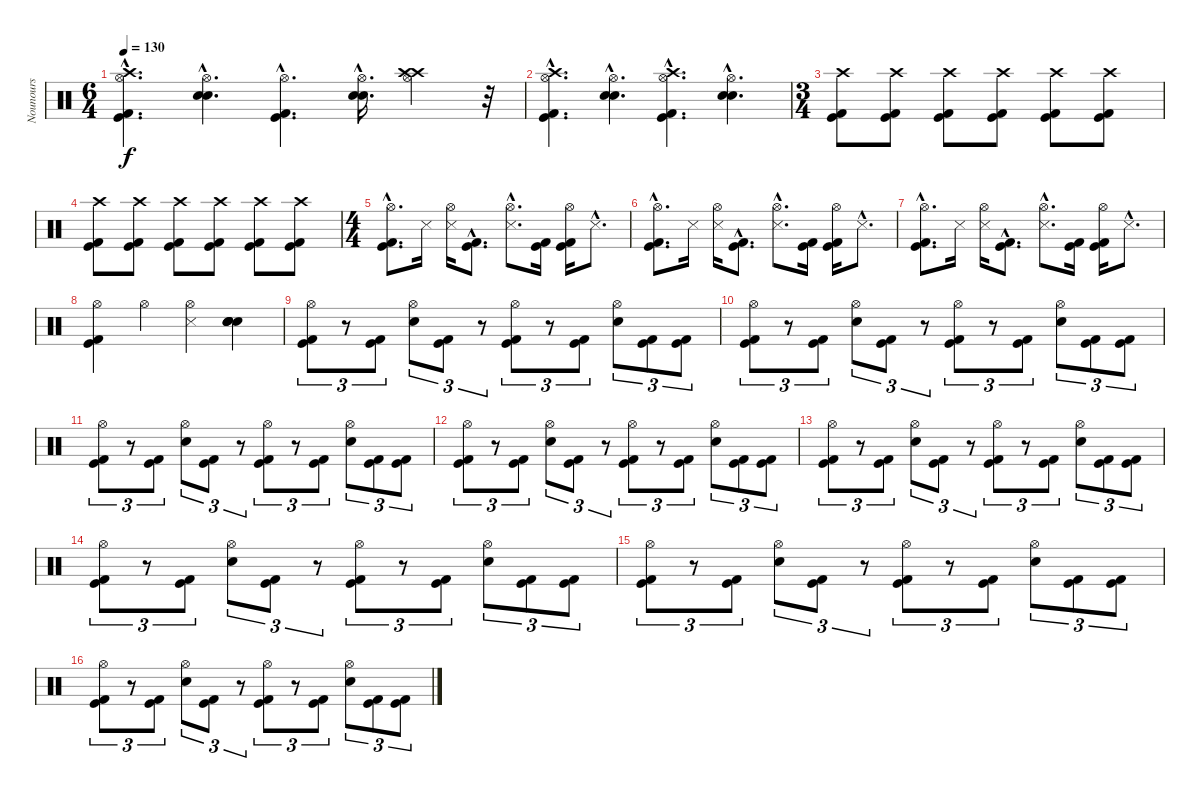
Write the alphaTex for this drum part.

\track ("Nounours" "Nounours") {instrument percussion}
\staff {score}
\articulation defaults
\ts (6 4)
\tempo 130
\clef neutral
\ks c
("Hi-Hat (open)"{hac} "Crash high (hit)"{hac} "Kick (hit) 2"{hac} "Kick (hit)"{hac}).4{d dy f} ("Hi-Hat (open)"{hac} "Snare (hit) 2"{hac} "Electric Snare (hit)"{hac}).4{d} ("Hi-Hat (open)"{hac} "Kick (hit)"{hac} "Kick (hit) 2"{hac}).4{d} ("Hi-Hat (open)"{hac} "Snare (hit) 2"{hac} "Electric Snare (hit)"{hac}).16{d} ("Hi-Hat (open)" "Crash high (hit)" "Crash high (hit)").4 r.32 |
("Hi-Hat (open)"{hac} "Crash high (hit)"{hac} "Kick (hit) 2"{hac} "Kick (hit)"{hac}).4{d} ("Hi-Hat (open)"{hac} "Snare (hit) 2"{hac} "Electric Snare (hit)"{hac}).4{d} ("Hi-Hat (open)"{hac} "Crash high (hit)"{hac} "Kick (hit)"{hac} "Kick (hit) 2"{hac}).4{d} ("Hi-Hat (open)"{hac} "Snare (hit) 2"{hac} "Electric Snare (hit)"{hac}).4{d} |
\ts (3 4)
("Crash high (hit)" "Kick (hit) 2" "Kick (hit)").8 ("Crash high (hit)" "Kick (hit)" "Kick (hit) 2").8 ("Crash high (hit)" "Kick (hit)" "Kick (hit) 2").8 ("Crash high (hit)" "Kick (hit)" "Kick (hit) 2").8 ("Crash high (hit)" "Kick (hit) 2" "Kick (hit)").8 ("Crash high (hit)" "Kick (hit) 2" "Kick (hit)").8 |
("Crash high (hit)" "Kick (hit) 2" "Kick (hit)").8 ("Crash high (hit)" "Kick (hit)" "Kick (hit) 2").8 ("Crash high (hit)" "Kick (hit)" "Kick (hit) 2").8 ("Crash high (hit)" "Kick (hit)" "Kick (hit) 2").8 ("Crash high (hit)" "Kick (hit) 2" "Kick (hit)").8 ("Crash high (hit)" "Kick (hit) 2" "Kick (hit)").8 |
\ts (4 4)
("Hi-Hat (open)"{hac} "Kick (hit)"{hac} "Kick (hit) 2"{hac}).8{d} "Snare (side stick) 3".16 ("Hi-Hat (open)" "Snare (side stick) 3").16 ("Kick (hit) 2"{hac} "Kick (hit)"{hac}).8{d} ("Hi-Hat (open)"{hac} "Snare (side stick) 3"{hac}).8{d} ("Kick (hit)" "Kick (hit) 2").16 ("Hi-Hat (open)" "Kick (hit)" "Kick (hit) 2").16 "Snare (side stick) 3"{hac}.8{d} |
("Hi-Hat (open)"{hac} "Kick (hit)"{hac} "Kick (hit) 2"{hac}).8{d} "Snare (side stick) 3".16 ("Hi-Hat (open)" "Snare (side stick) 3").16 ("Kick (hit) 2"{hac} "Kick (hit)"{hac}).8{d} ("Hi-Hat (open)"{hac} "Snare (side stick) 3"{hac}).8{d} ("Kick (hit)" "Kick (hit) 2").16 ("Hi-Hat (open)" "Kick (hit)" "Kick (hit) 2").16 "Snare (side stick) 3"{hac}.8{d} |
("Hi-Hat (open)"{hac} "Kick (hit)"{hac} "Kick (hit) 2"{hac}).8{d} "Snare (side stick) 3".16 ("Hi-Hat (open)" "Snare (side stick) 3").16 ("Kick (hit) 2"{hac} "Kick (hit)"{hac}).8{d} ("Hi-Hat (open)"{hac} "Snare (side stick) 3"{hac}).8{d} ("Kick (hit)" "Kick (hit) 2").16 ("Hi-Hat (open)" "Kick (hit)" "Kick (hit) 2").16 "Snare (side stick) 3"{hac}.8{d} |
("Hi-Hat (open)" "Kick (hit)" "Kick (hit) 2").4 "Hi-Hat (open)".4 ("Hi-Hat (open)" "Snare (side stick) 3").4 ("Snare (hit) 2" "Snare (hit) 2" "Electric Snare (hit)" "Electric Snare (hit)").4 |
("Hi-Hat (open)" "Kick (hit) 2" "Kick (hit)").8{tu (3 2)} r.8{tu (3 2)} ("Kick (hit) 2" "Kick (hit)").8{tu (3 2)} ("Hi-Hat (open)" "Snare (hit) 2").8{tu (3 2)} ("Kick (hit) 2" "Kick (hit)").8{tu (3 2)} r.8{tu (3 2)} ("Hi-Hat (open)" "Kick (hit)" "Kick (hit) 2").8{tu (3 2)} r.8{tu (3 2)} ("Kick (hit)" "Kick (hit) 2").8{tu (3 2)} ("Hi-Hat (open)" "Snare (hit) 2").8{tu (3 2)} ("Kick (hit) 2" "Kick (hit)").8{tu (3 2)} ("Kick (hit)" "Kick (hit) 2").8{tu (3 2)} |
("Hi-Hat (open)" "Kick (hit) 2" "Kick (hit)").8{tu (3 2)} r.8{tu (3 2)} ("Kick (hit) 2" "Kick (hit)").8{tu (3 2)} ("Hi-Hat (open)" "Snare (hit) 2").8{tu (3 2)} ("Kick (hit) 2" "Kick (hit)").8{tu (3 2)} r.8{tu (3 2)} ("Hi-Hat (open)" "Kick (hit)" "Kick (hit) 2").8{tu (3 2)} r.8{tu (3 2)} ("Kick (hit)" "Kick (hit) 2").8{tu (3 2)} ("Hi-Hat (open)" "Snare (hit) 2").8{tu (3 2)} ("Kick (hit) 2" "Kick (hit)").8{tu (3 2)} ("Kick (hit)" "Kick (hit) 2").8{tu (3 2)} |
("Hi-Hat (open)" "Kick (hit) 2" "Kick (hit)").8{tu (3 2)} r.8{tu (3 2)} ("Kick (hit) 2" "Kick (hit)").8{tu (3 2)} ("Hi-Hat (open)" "Snare (hit) 2").8{tu (3 2)} ("Kick (hit) 2" "Kick (hit)").8{tu (3 2)} r.8{tu (3 2)} ("Hi-Hat (open)" "Kick (hit)" "Kick (hit) 2").8{tu (3 2)} r.8{tu (3 2)} ("Kick (hit)" "Kick (hit) 2").8{tu (3 2)} ("Hi-Hat (open)" "Snare (hit) 2").8{tu (3 2)} ("Kick (hit) 2" "Kick (hit)").8{tu (3 2)} ("Kick (hit)" "Kick (hit) 2").8{tu (3 2)} |
("Hi-Hat (open)" "Kick (hit) 2" "Kick (hit)").8{tu (3 2)} r.8{tu (3 2)} ("Kick (hit) 2" "Kick (hit)").8{tu (3 2)} ("Hi-Hat (open)" "Snare (hit) 2").8{tu (3 2)} ("Kick (hit) 2" "Kick (hit)").8{tu (3 2)} r.8{tu (3 2)} ("Hi-Hat (open)" "Kick (hit)" "Kick (hit) 2").8{tu (3 2)} r.8{tu (3 2)} ("Kick (hit)" "Kick (hit) 2").8{tu (3 2)} ("Hi-Hat (open)" "Snare (hit) 2").8{tu (3 2)} ("Kick (hit) 2" "Kick (hit)").8{tu (3 2)} ("Kick (hit)" "Kick (hit) 2").8{tu (3 2)} |
("Hi-Hat (open)" "Kick (hit) 2" "Kick (hit)").8{tu (3 2)} r.8{tu (3 2)} ("Kick (hit) 2" "Kick (hit)").8{tu (3 2)} ("Hi-Hat (open)" "Snare (hit) 2").8{tu (3 2)} ("Kick (hit) 2" "Kick (hit)").8{tu (3 2)} r.8{tu (3 2)} ("Hi-Hat (open)" "Kick (hit)" "Kick (hit) 2").8{tu (3 2)} r.8{tu (3 2)} ("Kick (hit)" "Kick (hit) 2").8{tu (3 2)} ("Hi-Hat (open)" "Snare (hit) 2").8{tu (3 2)} ("Kick (hit) 2" "Kick (hit)").8{tu (3 2)} ("Kick (hit)" "Kick (hit) 2").8{tu (3 2)} |
("Hi-Hat (open)" "Kick (hit) 2" "Kick (hit)").8{tu (3 2)} r.8{tu (3 2)} ("Kick (hit) 2" "Kick (hit)").8{tu (3 2)} ("Hi-Hat (open)" "Snare (hit) 2").8{tu (3 2)} ("Kick (hit) 2" "Kick (hit)").8{tu (3 2)} r.8{tu (3 2)} ("Hi-Hat (open)" "Kick (hit)" "Kick (hit) 2").8{tu (3 2)} r.8{tu (3 2)} ("Kick (hit)" "Kick (hit) 2").8{tu (3 2)} ("Hi-Hat (open)" "Snare (hit) 2").8{tu (3 2)} ("Kick (hit) 2" "Kick (hit)").8{tu (3 2)} ("Kick (hit)" "Kick (hit) 2").8{tu (3 2)} |
("Hi-Hat (open)" "Kick (hit) 2" "Kick (hit)").8{tu (3 2)} r.8{tu (3 2)} ("Kick (hit) 2" "Kick (hit)").8{tu (3 2)} ("Hi-Hat (open)" "Snare (hit) 2").8{tu (3 2)} ("Kick (hit) 2" "Kick (hit)").8{tu (3 2)} r.8{tu (3 2)} ("Hi-Hat (open)" "Kick (hit)" "Kick (hit) 2").8{tu (3 2)} r.8{tu (3 2)} ("Kick (hit)" "Kick (hit) 2").8{tu (3 2)} ("Hi-Hat (open)" "Snare (hit) 2").8{tu (3 2)} ("Kick (hit) 2" "Kick (hit)").8{tu (3 2)} ("Kick (hit)" "Kick (hit) 2").8{tu (3 2)} |
("Hi-Hat (open)" "Kick (hit) 2" "Kick (hit)").8{tu (3 2)} r.8{tu (3 2)} ("Kick (hit) 2" "Kick (hit)").8{tu (3 2)} ("Hi-Hat (open)" "Snare (hit) 2").8{tu (3 2)} ("Kick (hit) 2" "Kick (hit)").8{tu (3 2)} r.8{tu (3 2)} ("Hi-Hat (open)" "Kick (hit)" "Kick (hit) 2").8{tu (3 2)} r.8{tu (3 2)} ("Kick (hit)" "Kick (hit) 2").8{tu (3 2)} ("Hi-Hat (open)" "Snare (hit) 2").8{tu (3 2)} ("Kick (hit) 2" "Kick (hit)").8{tu (3 2)} ("Kick (hit)" "Kick (hit) 2").8{tu (3 2)}
